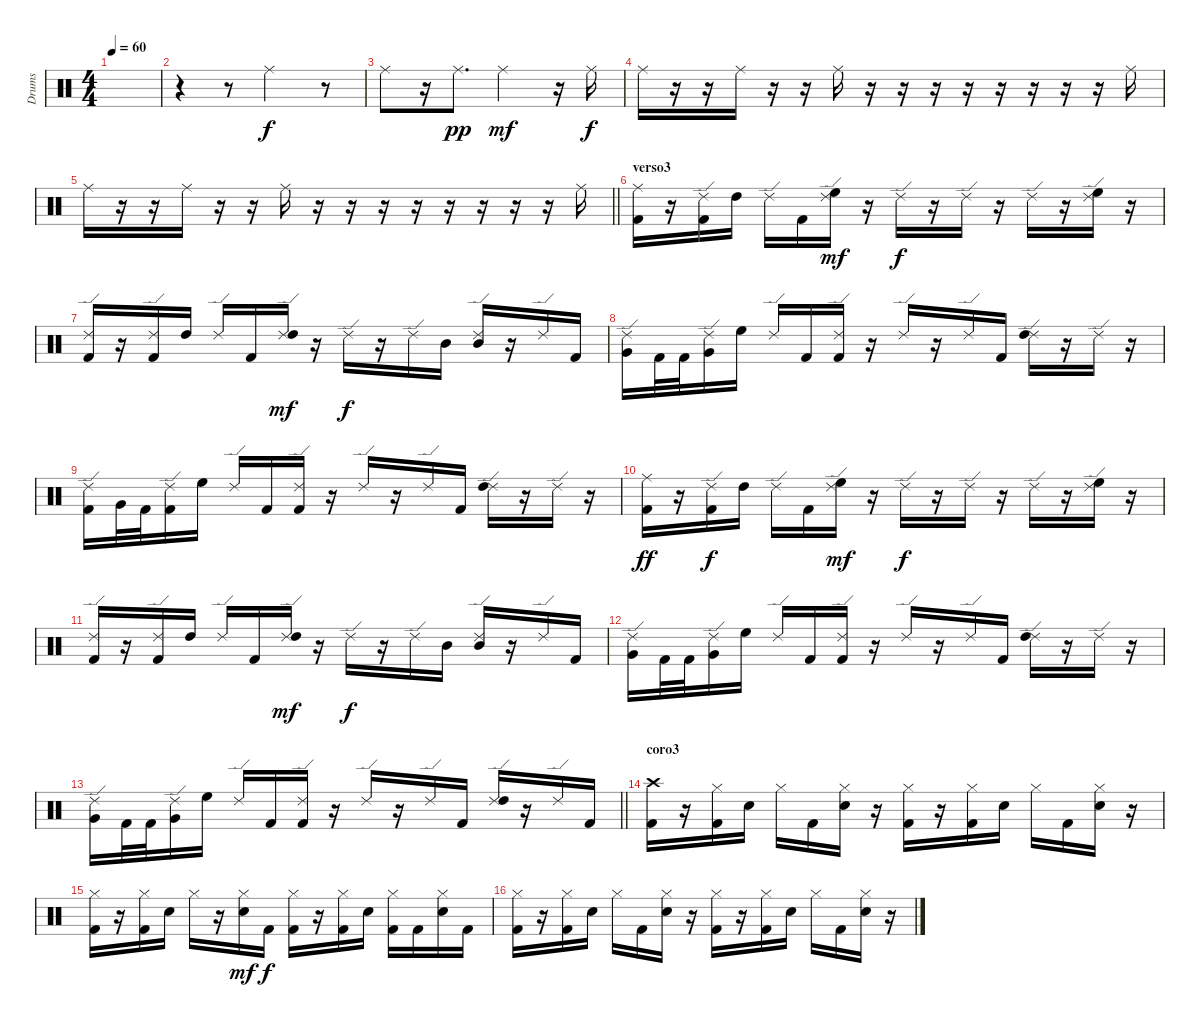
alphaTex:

\track ("Drums" "Drums") {instrument percussion}
\staff {score}
\articulation defaults
\ts (4 4)
\tempo 60
\clef neutral
\ks c
|
r.4 r.8 "Ride (middle)".2 r.8 |
"Ride (middle)".8 r.16 "Ride (middle)".8{d dy pp} "Ride (middle)".2{dy mf} r.16 "Ride (middle)".16{dy f} |
"Ride (middle)".16 r.16 r.16 "Ride (middle)".16 r.16 r.16 "Ride (middle)".16 r.16 r.16 r.16 r.16 r.16 r.16 r.16 r.16 "Ride (middle)".16 |
\barLineRight lightlight "Ride (middle)".16
r.16 r.16 "Ride (middle)".16 r.16 r.16 "Ride (middle)".16 r.16 r.16 r.16 r.16 r.16 r.16 r.16 r.16 "Ride (middle)".16 |
\section ("" "verso3")
("Ride (middle)" "Kick (hit) 2").16 r.16 ("Ride (edge) 2" "Kick (hit) 2").16 "High Tom (hit)".16 "Ride (edge) 2".16 "Kick (hit) 2".16 ("Ride (edge) 2" "High Floor Tom (hit)").16{dy mf} r.16 "Ride (edge) 2".16{dy f} r.16 "Ride (edge) 2".16 r.16 "Ride (edge) 2".16 r.16 ("Ride (edge) 2" "High Floor Tom (hit)").16 r.16 |
("Ride (edge) 2" "Kick (hit) 2").16 r.16 ("Ride (edge) 2" "Kick (hit) 2").16 "High Tom (hit)".16 "Ride (edge) 2".16 "Kick (hit) 2".16 ("Ride (edge) 2" "High Tom (hit)").16{dy mf} r.16 "Ride (edge) 2".16{dy f} r.16 "Ride (edge) 2".16 "Mid Tom (hit)".16 ("Ride (edge) 2" "Mid Tom (hit)").16 r.16 "Ride (edge) 2".16 "Kick (hit) 2".16 |
("Ride (edge) 2" "Very Low Tom (hit)").16 "Kick (hit) 2".32 "Kick (hit) 2".32 ("Ride (edge) 2" "Very Low Tom (hit)").16 "High Floor Tom (hit)".16 "Ride (edge) 2".16 "Kick (hit) 2".16 ("Ride (edge) 2" "Kick (hit) 2").16 r.16 "Ride (edge) 2".16 r.16 "Ride (edge) 2".16 "Kick (hit) 2".16 ("Ride (edge) 2" "High Tom (hit)").16 r.16 "Ride (edge) 2".16 r.16 |
("Ride (edge) 2" "Kick (hit) 2").16 "Very Low Tom (hit)".32 "Kick (hit) 2".32 ("Ride (edge) 2" "Kick (hit) 2").16 "High Floor Tom (hit)".16 "Ride (edge) 2".16 "Kick (hit) 2".16 ("Ride (edge) 2" "Kick (hit) 2").16 r.16 "Ride (edge) 2".16 r.16 "Ride (edge) 2".16 "Kick (hit) 2".16 ("Ride (edge) 2" "High Tom (hit)").16 r.16 "Ride (edge) 2".16 r.16 |
("Ride (middle)" "Kick (hit) 2").16{dy ff} r.16 ("Ride (edge) 2" "Kick (hit) 2").16{dy f} "High Tom (hit)".16 "Ride (edge) 2".16 "Kick (hit) 2".16 ("Ride (edge) 2" "High Floor Tom (hit)").16{dy mf} r.16 "Ride (edge) 2".16{dy f} r.16 "Ride (edge) 2".16 r.16 "Ride (edge) 2".16 r.16 ("Ride (edge) 2" "High Floor Tom (hit)").16 r.16 |
("Ride (edge) 2" "Kick (hit) 2").16 r.16 ("Ride (edge) 2" "Kick (hit) 2").16 "High Tom (hit)".16 "Ride (edge) 2".16 "Kick (hit) 2".16 ("Ride (edge) 2" "High Tom (hit)").16{dy mf} r.16 "Ride (edge) 2".16{dy f} r.16 "Ride (edge) 2".16 "Mid Tom (hit)".16 ("Ride (edge) 2" "Mid Tom (hit)").16 r.16 "Ride (edge) 2".16 "Kick (hit) 2".16 |
("Ride (edge) 2" "Very Low Tom (hit)").16 "Kick (hit) 2".32 "Kick (hit) 2".32 ("Ride (edge) 2" "Very Low Tom (hit)").16 "High Floor Tom (hit)".16 "Ride (edge) 2".16 "Kick (hit) 2".16 ("Ride (edge) 2" "Kick (hit) 2").16 r.16 "Ride (edge) 2".16 r.16 "Ride (edge) 2".16 "Kick (hit) 2".16 ("Ride (edge) 2" "High Tom (hit)").16 r.16 "Ride (edge) 2".16 r.16 |
\barLineRight lightlight
("Ride (edge) 2" "Very Low Tom (hit)").16 "Kick (hit) 2".32 "Kick (hit) 2".32 ("Ride (edge) 2" "Very Low Tom (hit)").16 "High Floor Tom (hit)".16 "Ride (edge) 2".16 "Kick (hit) 2".16 ("Ride (edge) 2" "Kick (hit) 2").16 r.16 "Ride (edge) 2".16 r.16 "Ride (edge) 2".16 "Kick (hit) 2".16 ("Ride (edge) 2" "High Tom (hit)").16 r.16 "Ride (edge) 2".16 "Kick (hit) 2".16 |
\section ("" "coro3")
("Crash high (hit)" "Kick (hit) 2").16 r.16 ("Hi-Hat (closed)" "Kick (hit) 2").16 "Snare (hit) 2".16 "Hi-Hat (closed)".16 "Kick (hit) 2".16 ("Hi-Hat (closed)" "Snare (hit) 2").16 r.16 ("Hi-Hat (closed)" "Kick (hit) 2").16 r.16 ("Hi-Hat (closed)" "Kick (hit) 2").16 "Snare (hit) 2".16 "Hi-Hat (closed)".16 "Kick (hit) 2".16 ("Hi-Hat (closed)" "Snare (hit) 2").16 r.16 |
("Hi-Hat (closed)" "Kick (hit) 2").16 r.16 ("Hi-Hat (closed)" "Kick (hit) 2").16 "Snare (hit) 2".16 "Hi-Hat (closed)".16 r.16 ("Hi-Hat (closed)" "Snare (hit) 2").16{dy mf} "Kick (hit) 2".16{dy f} ("Hi-Hat (closed)" "Kick (hit) 2").16 r.16 ("Hi-Hat (closed)" "Kick (hit) 2").16 "Snare (hit) 2".16 ("Hi-Hat (closed)" "Kick (hit) 2").16 "Kick (hit) 2".16 ("Hi-Hat (closed)" "Snare (hit) 2").16 "Kick (hit) 2".16 |
("Hi-Hat (closed)" "Kick (hit) 2").16 r.16 ("Hi-Hat (closed)" "Kick (hit) 2").16 "Snare (hit) 2".16 "Hi-Hat (closed)".16 "Kick (hit) 2".16 ("Hi-Hat (closed)" "Snare (hit) 2").16 r.16 ("Hi-Hat (closed)" "Kick (hit) 2").16 r.16 ("Hi-Hat (closed)" "Kick (hit) 2").16 "Snare (hit) 2".16 "Hi-Hat (closed)".16 "Kick (hit) 2".16 ("Hi-Hat (closed)" "Snare (hit) 2").16 r.16
